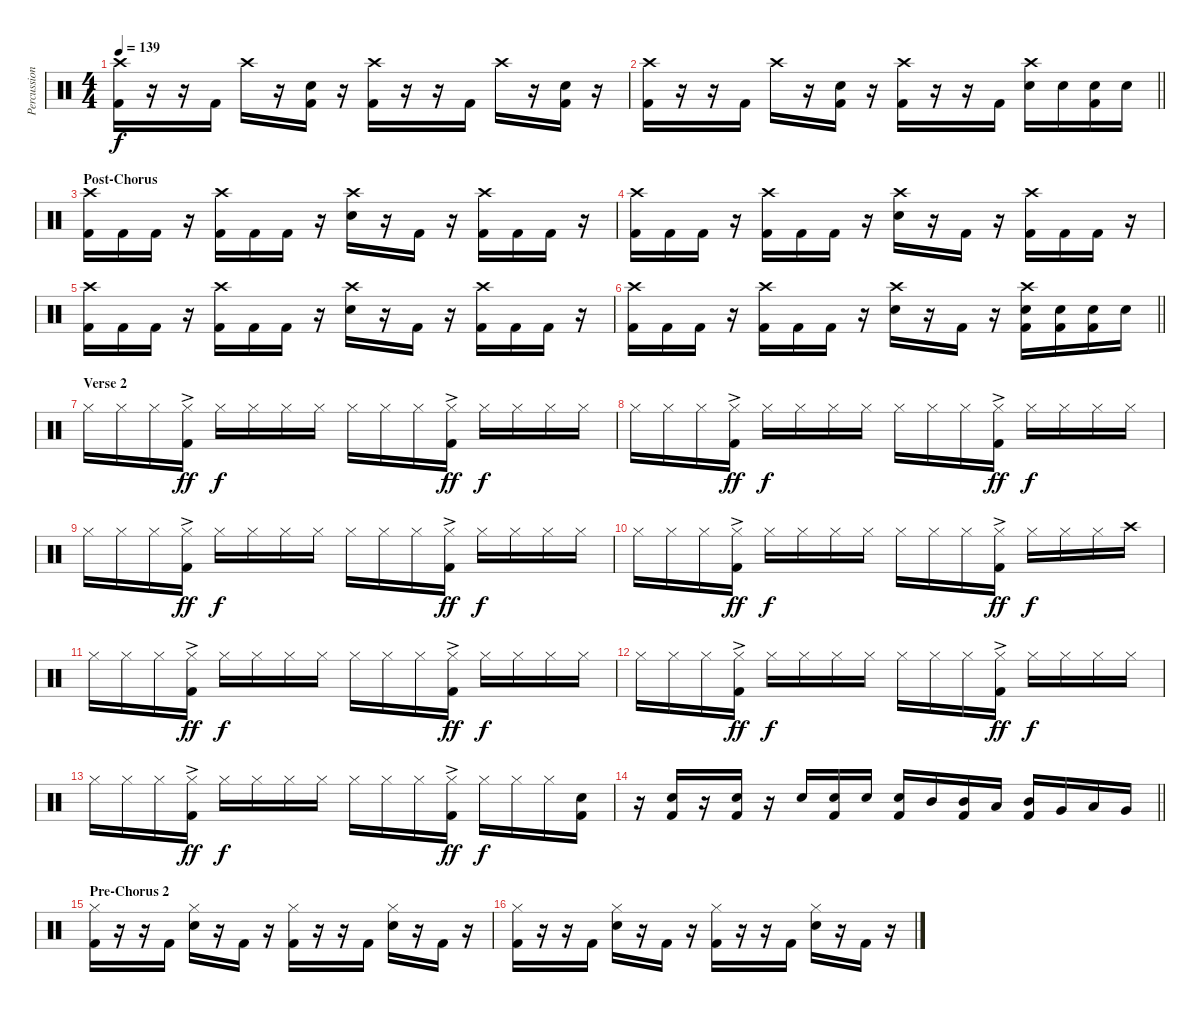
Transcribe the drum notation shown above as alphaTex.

\track ("Percussion" "Percussion") {instrument percussion}
\staff {score}
\articulation defaults
\ts (4 4)
\tempo 139
\clef neutral
\ks c
("Crash high (hit)" "Kick (hit) 2").16{dy f} r.16 r.16 "Kick (hit) 2".16 "Crash high (hit)".16 r.16 ("Snare (hit) 2" "Kick (hit) 2").16 r.16 ("Crash high (hit)" "Kick (hit) 2").16 r.16 r.16 "Kick (hit) 2".16 "Crash high (hit)".16 r.16 ("Snare (hit) 2" "Kick (hit) 2").16 r.16 |
\barLineRight lightlight
("Crash high (hit)" "Kick (hit) 2").16 r.16 r.16 "Kick (hit) 2".16 "Crash high (hit)".16 r.16 ("Snare (hit) 2" "Kick (hit) 2").16 r.16 ("Crash high (hit)" "Kick (hit) 2").16 r.16 r.16 "Kick (hit) 2".16 ("Crash high (hit)" "Snare (hit) 2").16 "Snare (hit) 2".16 ("Snare (hit) 2" "Kick (hit) 2").16 "Snare (hit) 2".16 |
\section ("" "Post-Chorus")
("Crash high (hit)" "Kick (hit) 2").16 "Kick (hit) 2".16 "Kick (hit) 2".16 r.16 ("Crash high (hit)" "Kick (hit) 2").16 "Kick (hit) 2".16 "Kick (hit) 2".16 r.16 ("Crash high (hit)" "Snare (hit) 2").16 r.16 "Kick (hit) 2".16 r.16 ("Crash high (hit)" "Kick (hit) 2").16 "Kick (hit) 2".16 "Kick (hit) 2".16 r.16 |
("Crash high (hit)" "Kick (hit) 2").16 "Kick (hit) 2".16 "Kick (hit) 2".16 r.16 ("Crash high (hit)" "Kick (hit) 2").16 "Kick (hit) 2".16 "Kick (hit) 2".16 r.16 ("Crash high (hit)" "Snare (hit) 2").16 r.16 "Kick (hit) 2".16 r.16 ("Crash high (hit)" "Kick (hit) 2").16 "Kick (hit) 2".16 "Kick (hit) 2".16 r.16 |
("Crash high (hit)" "Kick (hit) 2").16 "Kick (hit) 2".16 "Kick (hit) 2".16 r.16 ("Crash high (hit)" "Kick (hit) 2").16 "Kick (hit) 2".16 "Kick (hit) 2".16 r.16 ("Crash high (hit)" "Snare (hit) 2").16 r.16 "Kick (hit) 2".16 r.16 ("Crash high (hit)" "Kick (hit) 2").16 "Kick (hit) 2".16 "Kick (hit) 2".16 r.16 |
\barLineRight lightlight
("Crash high (hit)" "Kick (hit) 2").16 "Kick (hit) 2".16 "Kick (hit) 2".16 r.16 ("Crash high (hit)" "Kick (hit) 2").16 "Kick (hit) 2".16 "Kick (hit) 2".16 r.16 ("Crash high (hit)" "Snare (hit) 2").16 r.16 "Kick (hit) 2".16 r.16 ("Crash high (hit)" "Snare (hit) 2" "Kick (hit) 2").16 ("Snare (hit) 2" "Kick (hit) 2").16 ("Snare (hit) 2" "Kick (hit) 2").16 "Snare (hit) 2".16 |
\section ("" "Verse 2")
"Hi-Hat (closed)".16 "Hi-Hat (closed)".16 "Hi-Hat (closed)".16 ("Hi-Hat (closed)"{ac} "Kick (hit) 2"{ac}).16{dy ff} "Hi-Hat (closed)".16{dy f} "Hi-Hat (closed)".16 "Hi-Hat (closed)".16 "Hi-Hat (closed)".16 "Hi-Hat (closed)".16 "Hi-Hat (closed)".16 "Hi-Hat (closed)".16 ("Hi-Hat (closed)"{ac} "Kick (hit) 2"{ac}).16{dy ff} "Hi-Hat (closed)".16{dy f} "Hi-Hat (closed)".16 "Hi-Hat (closed)".16 "Hi-Hat (closed)".16 |
"Hi-Hat (closed)".16 "Hi-Hat (closed)".16 "Hi-Hat (closed)".16 ("Hi-Hat (closed)"{ac} "Kick (hit) 2"{ac}).16{dy ff} "Hi-Hat (closed)".16{dy f} "Hi-Hat (closed)".16 "Hi-Hat (closed)".16 "Hi-Hat (closed)".16 "Hi-Hat (closed)".16 "Hi-Hat (closed)".16 "Hi-Hat (closed)".16 ("Hi-Hat (closed)"{ac} "Kick (hit) 2"{ac}).16{dy ff} "Hi-Hat (closed)".16{dy f} "Hi-Hat (closed)".16 "Hi-Hat (closed)".16 "Hi-Hat (closed)".16 |
"Hi-Hat (closed)".16 "Hi-Hat (closed)".16 "Hi-Hat (closed)".16 ("Hi-Hat (closed)"{ac} "Kick (hit) 2"{ac}).16{dy ff} "Hi-Hat (closed)".16{dy f} "Hi-Hat (closed)".16 "Hi-Hat (closed)".16 "Hi-Hat (closed)".16 "Hi-Hat (closed)".16 "Hi-Hat (closed)".16 "Hi-Hat (closed)".16 ("Hi-Hat (closed)"{ac} "Kick (hit) 2"{ac}).16{dy ff} "Hi-Hat (closed)".16{dy f} "Hi-Hat (closed)".16 "Hi-Hat (closed)".16 "Hi-Hat (closed)".16 |
"Hi-Hat (closed)".16 "Hi-Hat (closed)".16 "Hi-Hat (closed)".16 ("Hi-Hat (closed)"{ac} "Kick (hit) 2"{ac}).16{dy ff} "Hi-Hat (closed)".16{dy f} "Hi-Hat (closed)".16 "Hi-Hat (closed)".16 "Hi-Hat (closed)".16 "Hi-Hat (closed)".16 "Hi-Hat (closed)".16 "Hi-Hat (closed)".16 ("Hi-Hat (closed)"{ac} "Kick (hit) 2"{ac}).16{dy ff} "Hi-Hat (closed)".16{dy f} "Hi-Hat (closed)".16 "Hi-Hat (closed)".16 "Crash high (hit)".16 |
"Hi-Hat (closed)".16 "Hi-Hat (closed)".16 "Hi-Hat (closed)".16 ("Hi-Hat (closed)"{ac} "Kick (hit) 2"{ac}).16{dy ff} "Hi-Hat (closed)".16{dy f} "Hi-Hat (closed)".16 "Hi-Hat (closed)".16 "Hi-Hat (closed)".16 "Hi-Hat (closed)".16 "Hi-Hat (closed)".16 "Hi-Hat (closed)".16 ("Hi-Hat (closed)"{ac} "Kick (hit) 2"{ac}).16{dy ff} "Hi-Hat (closed)".16{dy f} "Hi-Hat (closed)".16 "Hi-Hat (closed)".16 "Hi-Hat (closed)".16 |
"Hi-Hat (closed)".16 "Hi-Hat (closed)".16 "Hi-Hat (closed)".16 ("Hi-Hat (closed)"{ac} "Kick (hit) 2"{ac}).16{dy ff} "Hi-Hat (closed)".16{dy f} "Hi-Hat (closed)".16 "Hi-Hat (closed)".16 "Hi-Hat (closed)".16 "Hi-Hat (closed)".16 "Hi-Hat (closed)".16 "Hi-Hat (closed)".16 ("Hi-Hat (closed)"{ac} "Kick (hit) 2"{ac}).16{dy ff} "Hi-Hat (closed)".16{dy f} "Hi-Hat (closed)".16 "Hi-Hat (closed)".16 "Hi-Hat (closed)".16 |
"Hi-Hat (closed)".16 "Hi-Hat (closed)".16 "Hi-Hat (closed)".16 ("Hi-Hat (closed)"{ac} "Kick (hit) 2"{ac}).16{dy ff} "Hi-Hat (closed)".16{dy f} "Hi-Hat (closed)".16 "Hi-Hat (closed)".16 "Hi-Hat (closed)".16 "Hi-Hat (closed)".16 "Hi-Hat (closed)".16 "Hi-Hat (closed)".16 ("Hi-Hat (closed)"{ac} "Kick (hit) 2"{ac}).16{dy ff} "Hi-Hat (closed)".16{dy f} "Hi-Hat (closed)".16 "Hi-Hat (closed)".16 ("Snare (hit) 2" "Kick (hit) 2").16 |
\barLineRight lightlight
r.16 ("Snare (hit) 2" "Kick (hit) 2").16 r.16 ("Snare (hit) 2" "Kick (hit) 2").16 r.16 "Snare (hit) 2".16 ("Snare (hit) 2" "Kick (hit) 2").16 "Snare (hit) 2".16 ("Snare (hit) 2" "Kick (hit) 2").16 "Mid Tom (hit)".16 ("Mid Tom (hit)" "Kick (hit) 2").16 "Low Tom (hit)".16 ("Mid Tom (hit)" "Kick (hit) 2").16 "Very Low Tom (hit)".16 "Low Tom (hit)".16 "Very Low Tom (hit)".16 |
\section ("" "Pre-Chorus 2")
("Hi-Hat (closed)" "Kick (hit) 2").16 r.16 r.16 "Kick (hit) 2".16 ("Hi-Hat (closed)" "Snare (hit) 2").16 r.16 "Kick (hit) 2".16 r.16 ("Hi-Hat (closed)" "Kick (hit) 2").16 r.16 r.16 "Kick (hit) 2".16 ("Hi-Hat (closed)" "Snare (hit) 2").16 r.16 "Kick (hit) 2".16 r.16 |
("Hi-Hat (closed)" "Kick (hit) 2").16 r.16 r.16 "Kick (hit) 2".16 ("Hi-Hat (closed)" "Snare (hit) 2").16 r.16 "Kick (hit) 2".16 r.16 ("Hi-Hat (closed)" "Kick (hit) 2").16 r.16 r.16 "Kick (hit) 2".16 ("Hi-Hat (closed)" "Snare (hit) 2").16 r.16 "Kick (hit) 2".16 r.16
